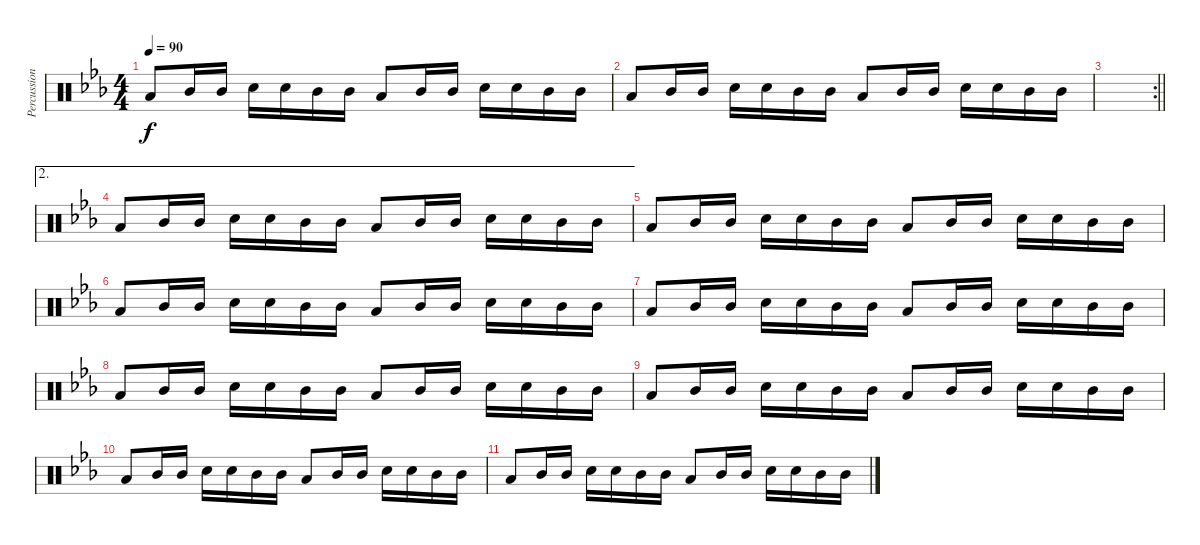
\track ("Percussion" "Percussion") {instrument percussion}
\staff {score}
\articulation defaults
\ts (4 4)
\tempo 90
\clef neutral
\ks eb "Low Floor Tom (hit)".8{dy f} "Mid Tom (hit)".16 "Mid Tom (hit)".16 "Snare (hit) 2".16 "Snare (hit) 2".16 "Mid Tom (hit)".16 "Mid Tom (hit)".16 "Low Floor Tom (hit)".8 "Mid Tom (hit)".16 "Mid Tom (hit)".16 "Snare (hit) 2".16 "Snare (hit) 2".16 "Mid Tom (hit)".16 "Mid Tom (hit)".16
|
"Low Floor Tom (hit)".8 "Mid Tom (hit)".16 "Mid Tom (hit)".16 "Snare (hit) 2".16 "Snare (hit) 2".16 "Mid Tom (hit)".16 "Mid Tom (hit)".16 "Low Floor Tom (hit)".8 "Mid Tom (hit)".16 "Mid Tom (hit)".16 "Snare (hit) 2".16 "Snare (hit) 2".16 "Mid Tom (hit)".16 "Mid Tom (hit)".16 |
\rc 2
\barLineRight lightlight
|
\ae 2 "Low Floor Tom (hit)".8 "Mid Tom (hit)".16 "Mid Tom (hit)".16 "Snare (hit) 2".16 "Snare (hit) 2".16 "Mid Tom (hit)".16 "Mid Tom (hit)".16 "Low Floor Tom (hit)".8 "Mid Tom (hit)".16 "Mid Tom (hit)".16 "Snare (hit) 2".16 "Snare (hit) 2".16 "Mid Tom (hit)".16 "Mid Tom (hit)".16
|
"Low Floor Tom (hit)".8 "Mid Tom (hit)".16 "Mid Tom (hit)".16 "Snare (hit) 2".16 "Snare (hit) 2".16 "Mid Tom (hit)".16 "Mid Tom (hit)".16 "Low Floor Tom (hit)".8 "Mid Tom (hit)".16 "Mid Tom (hit)".16 "Snare (hit) 2".16 "Snare (hit) 2".16 "Mid Tom (hit)".16 "Mid Tom (hit)".16 |
"Low Floor Tom (hit)".8 "Mid Tom (hit)".16 "Mid Tom (hit)".16 "Snare (hit) 2".16 "Snare (hit) 2".16 "Mid Tom (hit)".16 "Mid Tom (hit)".16 "Low Floor Tom (hit)".8 "Mid Tom (hit)".16 "Mid Tom (hit)".16 "Snare (hit) 2".16 "Snare (hit) 2".16 "Mid Tom (hit)".16 "Mid Tom (hit)".16 |
"Low Floor Tom (hit)".8 "Mid Tom (hit)".16 "Mid Tom (hit)".16 "Snare (hit) 2".16 "Snare (hit) 2".16 "Mid Tom (hit)".16 "Mid Tom (hit)".16 "Low Floor Tom (hit)".8 "Mid Tom (hit)".16 "Mid Tom (hit)".16 "Snare (hit) 2".16 "Snare (hit) 2".16 "Mid Tom (hit)".16 "Mid Tom (hit)".16 |
"Low Floor Tom (hit)".8 "Mid Tom (hit)".16 "Mid Tom (hit)".16 "Snare (hit) 2".16 "Snare (hit) 2".16 "Mid Tom (hit)".16 "Mid Tom (hit)".16 "Low Floor Tom (hit)".8 "Mid Tom (hit)".16 "Mid Tom (hit)".16 "Snare (hit) 2".16 "Snare (hit) 2".16 "Mid Tom (hit)".16 "Mid Tom (hit)".16 |
"Low Floor Tom (hit)".8 "Mid Tom (hit)".16 "Mid Tom (hit)".16 "Snare (hit) 2".16 "Snare (hit) 2".16 "Mid Tom (hit)".16 "Mid Tom (hit)".16 "Low Floor Tom (hit)".8 "Mid Tom (hit)".16 "Mid Tom (hit)".16 "Snare (hit) 2".16 "Snare (hit) 2".16 "Mid Tom (hit)".16 "Mid Tom (hit)".16 |
"Low Floor Tom (hit)".8 "Mid Tom (hit)".16 "Mid Tom (hit)".16 "Snare (hit) 2".16 "Snare (hit) 2".16 "Mid Tom (hit)".16 "Mid Tom (hit)".16 "Low Floor Tom (hit)".8 "Mid Tom (hit)".16 "Mid Tom (hit)".16 "Snare (hit) 2".16 "Snare (hit) 2".16 "Mid Tom (hit)".16 "Mid Tom (hit)".16 |
"Low Floor Tom (hit)".8 "Mid Tom (hit)".16 "Mid Tom (hit)".16 "Snare (hit) 2".16 "Snare (hit) 2".16 "Mid Tom (hit)".16 "Mid Tom (hit)".16 "Low Floor Tom (hit)".8 "Mid Tom (hit)".16 "Mid Tom (hit)".16 "Snare (hit) 2".16 "Snare (hit) 2".16 "Mid Tom (hit)".16 "Mid Tom (hit)".16
